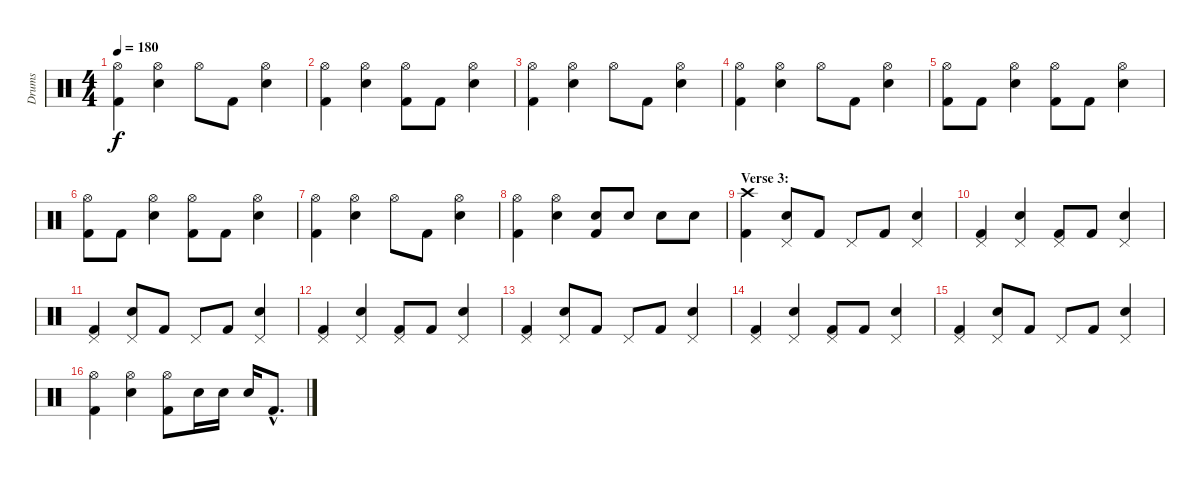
\track ("Drums" "Drums") {instrument percussion}
\staff {score}
\articulation defaults
\ts (4 4)
\tempo 180
\clef neutral
\ks c
("Hi-Hat (open)" "Kick (hit) 2").4{dy f} ("Hi-Hat (open)" "Electric Snare (hit)").4 "Hi-Hat (open)".8 "Kick (hit) 2".8 ("Hi-Hat (open)" "Electric Snare (hit)").4 |
("Hi-Hat (open)" "Kick (hit) 2").4 ("Hi-Hat (open)" "Electric Snare (hit)").4 ("Hi-Hat (open)" "Kick (hit) 2").8 "Kick (hit) 2".8 ("Hi-Hat (open)" "Electric Snare (hit)").4 |
("Hi-Hat (open)" "Kick (hit) 2").4 ("Hi-Hat (open)" "Electric Snare (hit)").4 "Hi-Hat (open)".8 "Kick (hit) 2".8 ("Hi-Hat (open)" "Electric Snare (hit)").4 |
("Hi-Hat (open)" "Kick (hit) 2").4 ("Hi-Hat (open)" "Electric Snare (hit)").4 "Hi-Hat (open)".8 "Kick (hit) 2".8 ("Hi-Hat (open)" "Electric Snare (hit)").4 |
("Hi-Hat (open)" "Kick (hit) 2").8 "Kick (hit) 2".8 ("Hi-Hat (open)" "Electric Snare (hit)").4 ("Hi-Hat (open)" "Kick (hit) 2").8 "Kick (hit) 2".8 ("Hi-Hat (open)" "Electric Snare (hit)").4 |
("Hi-Hat (open)" "Kick (hit) 2").8 "Kick (hit) 2".8 ("Hi-Hat (open)" "Electric Snare (hit)").4 ("Hi-Hat (open)" "Kick (hit) 2").8 "Kick (hit) 2".8 ("Hi-Hat (open)" "Electric Snare (hit)").4 |
("Hi-Hat (open)" "Kick (hit) 2").4 ("Hi-Hat (open)" "Electric Snare (hit)").4 "Hi-Hat (open)".8 "Kick (hit) 2".8 ("Hi-Hat (open)" "Electric Snare (hit)").4 |
("Hi-Hat (open)" "Kick (hit) 2").4 ("Hi-Hat (open)" "Electric Snare (hit)").4 ("Electric Snare (hit)" "Kick (hit) 2").8 "Electric Snare (hit)".8 "Electric Snare (hit)".8 "Electric Snare (hit)".8 |
\section ("" "Verse 3:")
("Crash high (hit)" "Kick (hit) 2").4 ("Pedal Hi-Hat (hit)" "Electric Snare (hit)").8 "Kick (hit) 2".8 "Pedal Hi-Hat (hit)".8 "Kick (hit) 2".8 ("Pedal Hi-Hat (hit)" "Electric Snare (hit)").4 |
("Pedal Hi-Hat (hit)" "Kick (hit) 2").4 ("Pedal Hi-Hat (hit)" "Electric Snare (hit)").4 ("Pedal Hi-Hat (hit)" "Kick (hit) 2").8 "Kick (hit) 2".8 ("Pedal Hi-Hat (hit)" "Electric Snare (hit)").4 |
("Pedal Hi-Hat (hit)" "Kick (hit) 2").4 ("Pedal Hi-Hat (hit)" "Electric Snare (hit)").8 "Kick (hit) 2".8 "Pedal Hi-Hat (hit)".8 "Kick (hit) 2".8 ("Pedal Hi-Hat (hit)" "Electric Snare (hit)").4 |
("Pedal Hi-Hat (hit)" "Kick (hit) 2").4 ("Pedal Hi-Hat (hit)" "Electric Snare (hit)").4 ("Pedal Hi-Hat (hit)" "Kick (hit) 2").8 "Kick (hit) 2".8 ("Pedal Hi-Hat (hit)" "Electric Snare (hit)").4 |
("Pedal Hi-Hat (hit)" "Kick (hit) 2").4 ("Pedal Hi-Hat (hit)" "Electric Snare (hit)").8 "Kick (hit) 2".8 "Pedal Hi-Hat (hit)".8 "Kick (hit) 2".8 ("Pedal Hi-Hat (hit)" "Electric Snare (hit)").4 |
("Pedal Hi-Hat (hit)" "Kick (hit) 2").4 ("Pedal Hi-Hat (hit)" "Electric Snare (hit)").4 ("Pedal Hi-Hat (hit)" "Kick (hit) 2").8 "Kick (hit) 2".8 ("Pedal Hi-Hat (hit)" "Electric Snare (hit)").4 |
("Pedal Hi-Hat (hit)" "Kick (hit) 2").4 ("Pedal Hi-Hat (hit)" "Electric Snare (hit)").8 "Kick (hit) 2".8 "Pedal Hi-Hat (hit)".8 "Kick (hit) 2".8 ("Pedal Hi-Hat (hit)" "Electric Snare (hit)").4 |
("Hi-Hat (open)" "Kick (hit) 2").4 ("Hi-Hat (open)" "Electric Snare (hit)").4 ("Hi-Hat (open)" "Kick (hit) 2").8 "Electric Snare (hit)".16 "Electric Snare (hit)".16 "Electric Snare (hit)".16 "Kick (hit) 2"{hac}.8{d}
